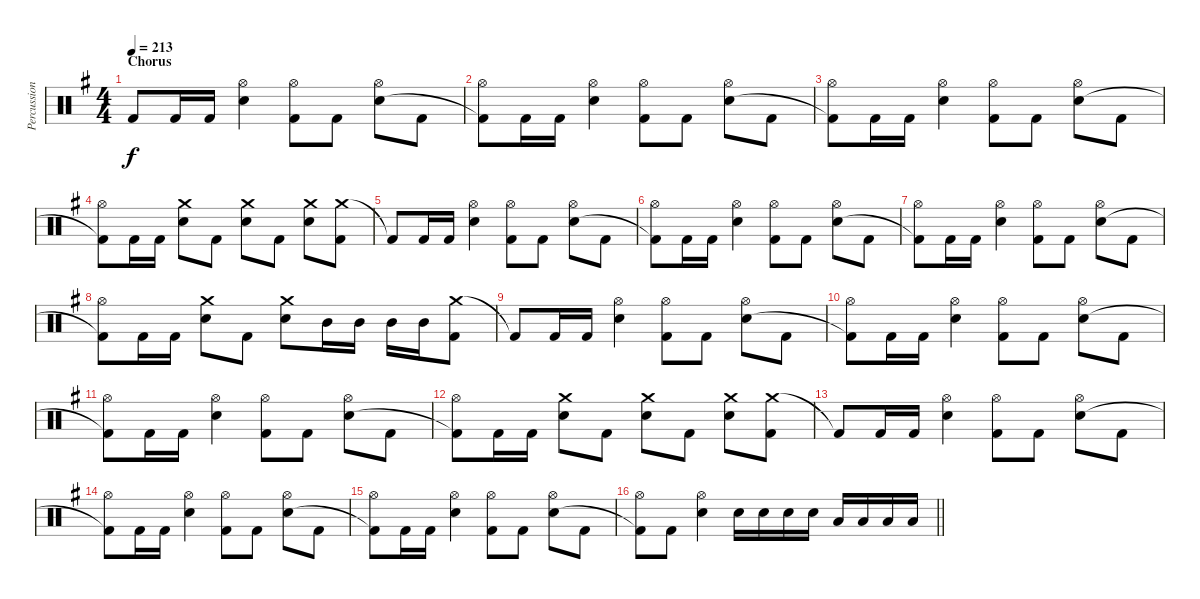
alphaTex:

\track ("Percussion" "Percussion") {instrument percussion}
\staff {score}
\articulation defaults
\ts (4 4)
\section ("" "Chorus")
\tempo 213
\clef neutral
\ks eminor "Kick (hit) 2"{t}.8{dy f} "Kick (hit) 2".16 "Kick (hit) 2".16
("Hi-Hat (open)" "Snare (hit) 2").4 ("Hi-Hat (open)" "Kick (hit) 2").8 "Kick (hit) 2".8 ("Hi-Hat (open)" "Snare (hit) 2").8 "Kick (hit) 2".8 |
("Hi-Hat (open)" "Kick (hit) 2"{t}).8 "Kick (hit) 2".16 "Kick (hit) 2".16 ("Hi-Hat (open)" "Snare (hit) 2").4 ("Hi-Hat (open)" "Kick (hit) 2").8 "Kick (hit) 2".8 ("Hi-Hat (open)" "Snare (hit) 2").8 "Kick (hit) 2".8 |
("Hi-Hat (open)" "Kick (hit) 2"{t}).8 "Kick (hit) 2".16 "Kick (hit) 2".16 ("Hi-Hat (open)" "Snare (hit) 2").4 ("Hi-Hat (open)" "Kick (hit) 2").8 "Kick (hit) 2".8 ("Hi-Hat (open)" "Snare (hit) 2").8 "Kick (hit) 2".8 |
("Hi-Hat (open)" "Kick (hit) 2"{t}).8 "Kick (hit) 2".16 "Kick (hit) 2".16 ("Crash medium (hit)" "Snare (hit) 2").8 "Kick (hit) 2".8 ("Crash medium (hit)" "Snare (hit) 2").8 "Kick (hit) 2".8 ("Crash medium (hit)" "Snare (hit) 2").8 ("Crash medium (hit)" "Kick (hit) 2").8 |
"Kick (hit) 2"{t}.8 "Kick (hit) 2".16 "Kick (hit) 2".16 ("Hi-Hat (open)" "Snare (hit) 2").4 ("Hi-Hat (open)" "Kick (hit) 2").8 "Kick (hit) 2".8 ("Hi-Hat (open)" "Snare (hit) 2").8 "Kick (hit) 2".8 |
("Hi-Hat (open)" "Kick (hit) 2"{t}).8 "Kick (hit) 2".16 "Kick (hit) 2".16 ("Hi-Hat (open)" "Snare (hit) 2").4 ("Hi-Hat (open)" "Kick (hit) 2").8 "Kick (hit) 2".8 ("Hi-Hat (open)" "Snare (hit) 2").8 "Kick (hit) 2".8 |
("Hi-Hat (open)" "Kick (hit) 2"{t}).8 "Kick (hit) 2".16 "Kick (hit) 2".16 ("Hi-Hat (open)" "Snare (hit) 2").4 ("Hi-Hat (open)" "Kick (hit) 2").8 "Kick (hit) 2".8 ("Hi-Hat (open)" "Snare (hit) 2").8 "Kick (hit) 2".8 |
("Hi-Hat (open)" "Kick (hit) 2"{t}).8 "Kick (hit) 2".16 "Kick (hit) 2".16 ("Crash medium (hit)" "Snare (hit) 2").8 "Kick (hit) 2".8 ("Crash medium (hit)" "Snare (hit) 2").8 "Mid Tom (hit)".16 "Mid Tom (hit)".16 "Mid Tom (hit)".16 "Mid Tom (hit)".16 ("Crash medium (hit)" "Kick (hit) 2").8 |
"Kick (hit) 2"{t}.8 "Kick (hit) 2".16 "Kick (hit) 2".16 ("Hi-Hat (open)" "Snare (hit) 2").4 ("Hi-Hat (open)" "Kick (hit) 2").8 "Kick (hit) 2".8 ("Hi-Hat (open)" "Snare (hit) 2").8 "Kick (hit) 2".8 |
("Hi-Hat (open)" "Kick (hit) 2"{t}).8 "Kick (hit) 2".16 "Kick (hit) 2".16 ("Hi-Hat (open)" "Snare (hit) 2").4 ("Hi-Hat (open)" "Kick (hit) 2").8 "Kick (hit) 2".8 ("Hi-Hat (open)" "Snare (hit) 2").8 "Kick (hit) 2".8 |
("Hi-Hat (open)" "Kick (hit) 2"{t}).8 "Kick (hit) 2".16 "Kick (hit) 2".16 ("Hi-Hat (open)" "Snare (hit) 2").4 ("Hi-Hat (open)" "Kick (hit) 2").8 "Kick (hit) 2".8 ("Hi-Hat (open)" "Snare (hit) 2").8 "Kick (hit) 2".8 |
("Hi-Hat (open)" "Kick (hit) 2"{t}).8 "Kick (hit) 2".16 "Kick (hit) 2".16 ("Crash medium (hit)" "Snare (hit) 2").8 "Kick (hit) 2".8 ("Crash medium (hit)" "Snare (hit) 2").8 "Kick (hit) 2".8 ("Crash medium (hit)" "Snare (hit) 2").8 ("Crash medium (hit)" "Kick (hit) 2").8 |
"Kick (hit) 2"{t}.8 "Kick (hit) 2".16 "Kick (hit) 2".16 ("Hi-Hat (open)" "Snare (hit) 2").4 ("Hi-Hat (open)" "Kick (hit) 2").8 "Kick (hit) 2".8 ("Hi-Hat (open)" "Snare (hit) 2").8 "Kick (hit) 2".8 |
("Hi-Hat (open)" "Kick (hit) 2"{t}).8 "Kick (hit) 2".16 "Kick (hit) 2".16 ("Hi-Hat (open)" "Snare (hit) 2").4 ("Hi-Hat (open)" "Kick (hit) 2").8 "Kick (hit) 2".8 ("Hi-Hat (open)" "Snare (hit) 2").8 "Kick (hit) 2".8 |
("Hi-Hat (open)" "Kick (hit) 2"{t}).8 "Kick (hit) 2".16 "Kick (hit) 2".16 ("Hi-Hat (open)" "Snare (hit) 2").4 ("Hi-Hat (open)" "Kick (hit) 2").8 "Kick (hit) 2".8 ("Hi-Hat (open)" "Snare (hit) 2").8 "Kick (hit) 2".8 |
\barLineRight lightlight
("Hi-Hat (open)" "Kick (hit) 2"{t}).8 "Kick (hit) 2".8 ("Hi-Hat (open)" "Snare (hit) 2").4 "Snare (hit) 2".16 "Snare (hit) 2".16 "Snare (hit) 2".16 "Snare (hit) 2".16 "Low Tom (hit)".16 "Low Tom (hit)".16 "Low Tom (hit)".16 "Low Tom (hit)".16
